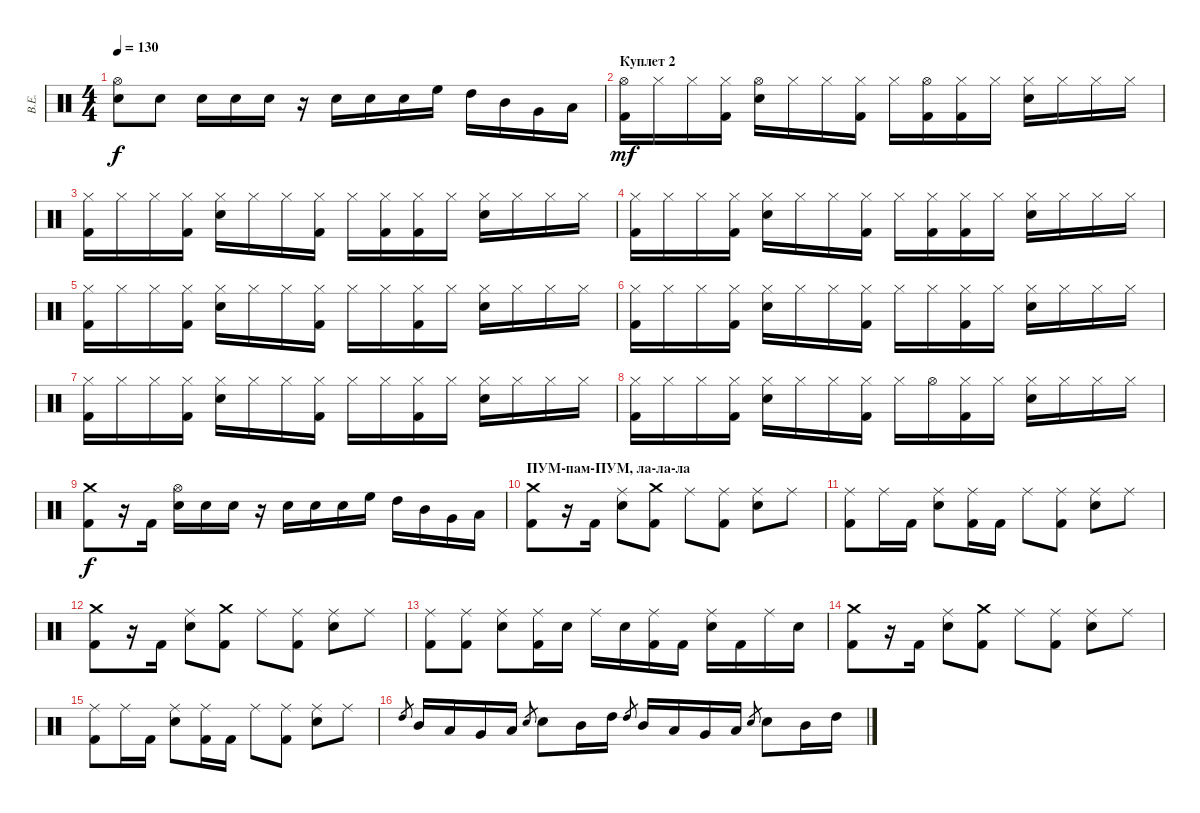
\track ("В.Е." "В.Е.") {instrument percussion}
\staff {score}
\articulation defaults
\ts (4 4)
\tempo 130
\clef neutral
\ks c
("Electric Snare (hit)" "Hi-Hat (open)").8{dy f} "Electric Snare (hit)".8 "Electric Snare (hit)".16 "Electric Snare (hit)".16 "Electric Snare (hit)".16 r.16 "Electric Snare (hit)".16 "Electric Snare (hit)".16 "Electric Snare (hit)".16 "High Floor Tom (hit)".16 "High Tom (hit)".16 "Mid Tom (hit)".16 "Very Low Tom (hit)".16 "Low Floor Tom (hit)".16 |
\section ("" "Куплет 2")
("Hi-Hat (open)" "Kick (hit) 2").16{dy mf} "Hi-Hat (closed)".16 "Hi-Hat (closed)".16 ("Hi-Hat (closed)" "Kick (hit) 2").16 ("Hi-Hat (open)" "Electric Snare (hit)").16 "Hi-Hat (closed)".16 "Hi-Hat (closed)".16 ("Hi-Hat (closed)" "Kick (hit) 2").16 "Hi-Hat (closed)".16 ("Hi-Hat (open)" "Kick (hit) 2").16 ("Hi-Hat (closed)" "Kick (hit) 2").16 "Hi-Hat (closed)".16 ("Hi-Hat (closed)" "Electric Snare (hit)").16 "Hi-Hat (closed)".16 "Hi-Hat (closed)".16 "Hi-Hat (closed)".16 |
("Hi-Hat (closed)" "Kick (hit) 2").16 "Hi-Hat (closed)".16 "Hi-Hat (closed)".16 ("Hi-Hat (closed)" "Kick (hit) 2").16 ("Hi-Hat (closed)" "Electric Snare (hit)").16 "Hi-Hat (closed)".16 "Hi-Hat (closed)".16 ("Hi-Hat (closed)" "Kick (hit) 2").16 "Hi-Hat (closed)".16 ("Hi-Hat (closed)" "Kick (hit) 2").16 ("Hi-Hat (closed)" "Kick (hit) 2").16 "Hi-Hat (closed)".16 ("Hi-Hat (closed)" "Electric Snare (hit)").16 "Hi-Hat (closed)".16 "Hi-Hat (closed)".16 "Hi-Hat (closed)".16 |
("Hi-Hat (closed)" "Kick (hit) 2").16 "Hi-Hat (closed)".16 "Hi-Hat (closed)".16 ("Hi-Hat (closed)" "Kick (hit) 2").16 ("Hi-Hat (closed)" "Electric Snare (hit)").16 "Hi-Hat (closed)".16 "Hi-Hat (closed)".16 ("Hi-Hat (closed)" "Kick (hit) 2").16 "Hi-Hat (closed)".16 ("Hi-Hat (closed)" "Kick (hit) 2").16 ("Hi-Hat (closed)" "Kick (hit) 2").16 "Hi-Hat (closed)".16 ("Hi-Hat (closed)" "Electric Snare (hit)").16 "Hi-Hat (closed)".16 "Hi-Hat (closed)".16 "Hi-Hat (closed)".16 |
("Hi-Hat (closed)" "Kick (hit) 2").16 "Hi-Hat (closed)".16 "Hi-Hat (closed)".16 ("Hi-Hat (closed)" "Kick (hit) 2").16 ("Hi-Hat (closed)" "Electric Snare (hit)").16 "Hi-Hat (closed)".16 "Hi-Hat (closed)".16 ("Hi-Hat (closed)" "Kick (hit) 2").16 "Hi-Hat (closed)".16 "Hi-Hat (closed)".16 ("Hi-Hat (closed)" "Kick (hit) 2").16 "Hi-Hat (closed)".16 ("Hi-Hat (closed)" "Electric Snare (hit)").16 "Hi-Hat (closed)".16 "Hi-Hat (closed)".16 "Hi-Hat (closed)".16 |
("Hi-Hat (closed)" "Kick (hit) 2").16 "Hi-Hat (closed)".16 "Hi-Hat (closed)".16 ("Hi-Hat (closed)" "Kick (hit) 2").16 ("Hi-Hat (closed)" "Electric Snare (hit)").16 "Hi-Hat (closed)".16 "Hi-Hat (closed)".16 ("Hi-Hat (closed)" "Kick (hit) 2").16 "Hi-Hat (closed)".16 "Hi-Hat (closed)".16 ("Hi-Hat (closed)" "Kick (hit) 2").16 "Hi-Hat (closed)".16 ("Hi-Hat (closed)" "Electric Snare (hit)").16 "Hi-Hat (closed)".16 "Hi-Hat (closed)".16 "Hi-Hat (closed)".16 |
("Hi-Hat (closed)" "Kick (hit) 2").16 "Hi-Hat (closed)".16 "Hi-Hat (closed)".16 ("Hi-Hat (closed)" "Kick (hit) 2").16 ("Hi-Hat (closed)" "Electric Snare (hit)").16 "Hi-Hat (closed)".16 "Hi-Hat (closed)".16 ("Hi-Hat (closed)" "Kick (hit) 2").16 "Hi-Hat (closed)".16 "Hi-Hat (closed)".16 ("Hi-Hat (closed)" "Kick (hit) 2").16 "Hi-Hat (closed)".16 ("Hi-Hat (closed)" "Electric Snare (hit)").16 "Hi-Hat (closed)".16 "Hi-Hat (closed)".16 "Hi-Hat (closed)".16 |
("Hi-Hat (closed)" "Kick (hit) 2").16 "Hi-Hat (closed)".16 "Hi-Hat (closed)".16 ("Hi-Hat (closed)" "Kick (hit) 2").16 ("Hi-Hat (closed)" "Electric Snare (hit)").16 "Hi-Hat (closed)".16 "Hi-Hat (closed)".16 ("Hi-Hat (closed)" "Kick (hit) 2").16 "Hi-Hat (closed)".16 "Hi-Hat (open)".16 ("Hi-Hat (closed)" "Kick (hit) 2").16 "Hi-Hat (closed)".16 ("Hi-Hat (closed)" "Electric Snare (hit)").16 "Hi-Hat (closed)".16 "Hi-Hat (closed)".16 "Hi-Hat (closed)".16 |
("Kick (hit) 2" "Crash medium (hit)").8{dy f} r.16 "Kick (hit) 2".16 ("Electric Snare (hit)" "Hi-Hat (open)").16 "Electric Snare (hit)".16 "Electric Snare (hit)".16 r.16 "Electric Snare (hit)".16 "Electric Snare (hit)".16 "Electric Snare (hit)".16 "High Floor Tom (hit)".16 "High Tom (hit)".16 "Mid Tom (hit)".16 "Very Low Tom (hit)".16 "Low Floor Tom (hit)".16 |
\section ("" "ПУМ-пам-ПУМ, ла-ла-ла")
("Kick (hit) 2" "Crash medium (hit)").8 r.16 "Kick (hit) 2".16 ("Electric Snare (hit)" "Ride (middle)").8 ("Kick (hit) 2" "Crash medium (hit)").8 "Ride (middle)".8 ("Kick (hit) 2" "Ride (middle)").8 ("Electric Snare (hit)" "Ride (middle)").8 "Ride (middle)".8 |
("Kick (hit) 2" "Ride (middle)").8 "Ride (middle)".16 "Kick (hit) 2".16 ("Electric Snare (hit)" "Ride (middle)").8 ("Kick (hit) 2" "Ride (middle)").16 "Kick (hit) 2".16 "Ride (middle)".8 ("Kick (hit) 2" "Ride (middle)").8 ("Electric Snare (hit)" "Ride (middle)").8 "Ride (middle)".8 |
("Kick (hit) 2" "Crash medium (hit)").8 r.16 "Kick (hit) 2".16 ("Electric Snare (hit)" "Ride (middle)").8 ("Kick (hit) 2" "Crash medium (hit)").8 "Ride (middle)".8 ("Kick (hit) 2" "Ride (middle)").8 ("Electric Snare (hit)" "Ride (middle)").8 "Ride (middle)".8 |
("Kick (hit) 2" "Ride (middle)").8 ("Kick (hit) 2" "Ride (middle)").8 ("Electric Snare (hit)" "Ride (middle)").8 ("Kick (hit) 2" "Ride (middle)").16 "Electric Snare (hit)".16 "Ride (middle)".16 "Electric Snare (hit)".16 ("Kick (hit) 2" "Ride (middle)").16 "Kick (hit) 2".16 ("Electric Snare (hit)" "Ride (middle)").16 "Kick (hit) 2".16 "Ride (middle)".16 "Electric Snare (hit)".16 |
("Kick (hit) 2" "Crash medium (hit)").8 r.16 "Kick (hit) 2".16 ("Electric Snare (hit)" "Ride (middle)").8 ("Kick (hit) 2" "Crash medium (hit)").8 "Ride (middle)".8 ("Kick (hit) 2" "Ride (middle)").8 ("Electric Snare (hit)" "Ride (middle)").8 "Ride (middle)".8 |
("Kick (hit) 2" "Ride (middle)").8 "Ride (middle)".16 "Kick (hit) 2".16 ("Electric Snare (hit)" "Ride (middle)").8 ("Kick (hit) 2" "Ride (middle)").16 "Kick (hit) 2".16 "Ride (middle)".8 ("Kick (hit) 2" "Ride (middle)").8 ("Electric Snare (hit)" "Ride (middle)").8 "Ride (middle)".8 |
"High Tom (hit)".8{gr} "Mid Tom (hit)".16 "Low Tom (hit)".16 "Very Low Tom (hit)".16 "Low Tom (hit)".16 "Electric Snare (hit)".8{gr} "Electric Snare (hit)".8 "Mid Tom (hit)".16 "High Tom (hit)".16 "High Tom (hit)".8{gr} "Mid Tom (hit)".16 "Low Tom (hit)".16 "Very Low Tom (hit)".16 "Low Tom (hit)".16 "Electric Snare (hit)".8{gr} "Electric Snare (hit)".8 "Mid Tom (hit)".16 "High Tom (hit)".16
